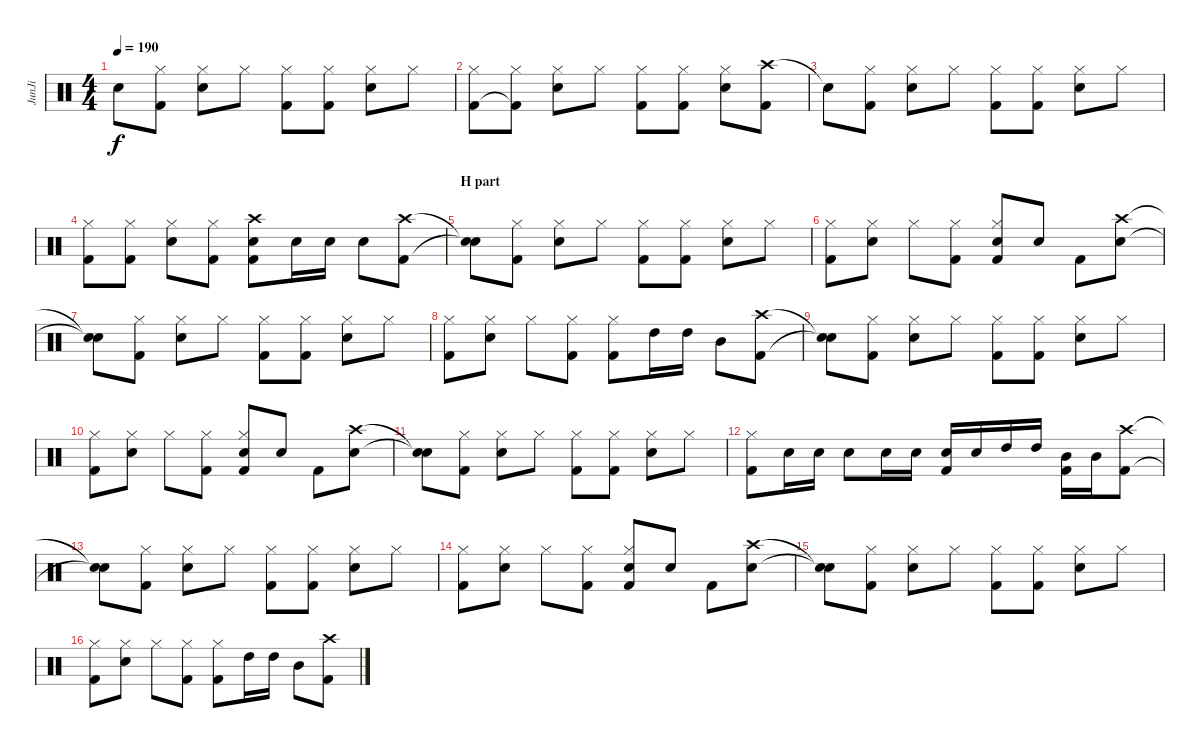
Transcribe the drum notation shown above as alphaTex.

\track ("JunJi" "JunJi") {instrument percussion}
\staff {score}
\articulation defaults
\ts (4 4)
\tempo 190
\clef neutral
\ks c "Snare (hit)"{t}.8{dy f}
("Hi-Hat (closed)" "Kick (hit) 2").8 ("Hi-Hat (closed)" "Snare (hit) 2").8 "Hi-Hat (closed)".8 ("Hi-Hat (closed)" "Kick (hit) 2").8 ("Hi-Hat (closed)" "Kick (hit) 2").8 ("Hi-Hat (closed)" "Snare (hit) 2").8 "Hi-Hat (closed)".8 |
("Hi-Hat (closed)" "Kick (hit) 2").8 ("Hi-Hat (closed)" "Kick (hit) 2"{t}).8 ("Hi-Hat (closed)" "Snare (hit) 2").8 "Hi-Hat (closed)".8 ("Hi-Hat (closed)" "Kick (hit) 2").8 ("Hi-Hat (closed)" "Kick (hit) 2").8 ("Hi-Hat (closed)" "Snare (hit) 2").8 ("Crash high (hit)" "Kick (hit) 2").8 |
"Snare (hit)"{t}.8 ("Hi-Hat (closed)" "Kick (hit) 2").8 ("Hi-Hat (closed)" "Snare (hit) 2").8 "Hi-Hat (closed)".8 ("Hi-Hat (closed)" "Kick (hit) 2").8 ("Hi-Hat (closed)" "Kick (hit) 2").8 ("Hi-Hat (closed)" "Snare (hit) 2").8 "Hi-Hat (closed)".8 |
("Hi-Hat (closed)" "Kick (hit) 2").8 ("Hi-Hat (closed)" "Kick (hit) 2").8 ("Hi-Hat (closed)" "Snare (hit) 2").8 ("Hi-Hat (closed)" "Kick (hit) 2").8 ("Crash high (hit)" "Snare (hit) 2" "Kick (hit) 2").8 "Snare (hit) 2".16 "Snare (hit) 2".16 "Snare (hit) 2".8 ("Crash high (hit)" "Kick (hit) 2").8 |
\section ("" "H part")
("Snare (hit)"{t} "Snare (hit)"{t}).8 ("Hi-Hat (closed)" "Kick (hit) 2").8 ("Hi-Hat (closed)" "Snare (hit) 2").8 "Hi-Hat (closed)".8 ("Hi-Hat (closed)" "Kick (hit) 2").8 ("Hi-Hat (closed)" "Kick (hit) 2").8 ("Hi-Hat (closed)" "Snare (hit) 2").8 "Hi-Hat (closed)".8 |
("Hi-Hat (closed)" "Kick (hit) 2").8 ("Hi-Hat (closed)" "Snare (hit) 2").8 "Hi-Hat (closed)".8 ("Hi-Hat (closed)" "Kick (hit) 2").8 ("Hi-Hat (closed)" "Snare (hit) 2" "Kick (hit) 2").8 "Snare (hit) 2".8 "Kick (hit) 2".8 ("Crash high (hit)" "Snare (hit) 2").8 |
("Snare (hit)"{t} "Snare (hit)"{t}).8 ("Hi-Hat (closed)" "Kick (hit) 2").8 ("Hi-Hat (closed)" "Snare (hit) 2").8 "Hi-Hat (closed)".8 ("Hi-Hat (closed)" "Kick (hit) 2").8 ("Hi-Hat (closed)" "Kick (hit) 2").8 ("Hi-Hat (closed)" "Snare (hit) 2").8 "Hi-Hat (closed)".8 |
("Hi-Hat (closed)" "Kick (hit) 2").8 ("Hi-Hat (closed)" "Snare (hit) 2").8 "Hi-Hat (closed)".8 ("Hi-Hat (closed)" "Kick (hit) 2").8 ("Hi-Hat (closed)" "Kick (hit) 2").8 "High Tom (hit)".16 "High Tom (hit)".16 "Mid Tom (hit)".8 ("Crash high (hit)" "Kick (hit) 2").8 |
("Snare (hit)"{t} "Snare (hit)"{t}).8 ("Hi-Hat (closed)" "Kick (hit) 2").8 ("Hi-Hat (closed)" "Snare (hit) 2").8 "Hi-Hat (closed)".8 ("Hi-Hat (closed)" "Kick (hit) 2").8 ("Hi-Hat (closed)" "Kick (hit) 2").8 ("Hi-Hat (closed)" "Snare (hit) 2").8 "Hi-Hat (closed)".8 |
("Hi-Hat (closed)" "Kick (hit) 2").8 ("Hi-Hat (closed)" "Snare (hit) 2").8 "Hi-Hat (closed)".8 ("Hi-Hat (closed)" "Kick (hit) 2").8 ("Hi-Hat (closed)" "Snare (hit) 2" "Kick (hit) 2").8 "Snare (hit) 2".8 "Kick (hit) 2".8 ("Crash high (hit)" "Snare (hit) 2").8 |
("Snare (hit)"{t} "Snare (hit)"{t}).8 ("Hi-Hat (closed)" "Kick (hit) 2").8 ("Hi-Hat (closed)" "Snare (hit) 2").8 "Hi-Hat (closed)".8 ("Hi-Hat (closed)" "Kick (hit) 2").8 ("Hi-Hat (closed)" "Kick (hit) 2").8 ("Hi-Hat (closed)" "Snare (hit) 2").8 "Hi-Hat (closed)".8 |
("Hi-Hat (closed)" "Kick (hit) 2").8 "Snare (hit) 2".16 "Snare (hit) 2".16 "Snare (hit) 2".8 "Snare (hit) 2".16 "Snare (hit) 2".16 ("Snare (hit) 2" "Kick (hit) 2").16 "Snare (hit) 2".16 "High Tom (hit)".16 "High Tom (hit)".16 ("Mid Tom (hit)" "Kick (hit) 2").16 "Mid Tom (hit)".16 ("Crash high (hit)" "Kick (hit) 2").8 |
("Snare (hit)"{t} "Snare (hit)"{t}).8{volume 15} ("Hi-Hat (closed)" "Kick (hit) 2").8 ("Hi-Hat (closed)" "Snare (hit) 2").8{volume 13} "Hi-Hat (closed)".8 ("Hi-Hat (closed)" "Kick (hit) 2").8 ("Hi-Hat (closed)" "Kick (hit) 2").8 ("Hi-Hat (closed)" "Snare (hit) 2").8 "Hi-Hat (closed)".8 |
("Hi-Hat (closed)" "Kick (hit) 2").8{volume 11} ("Hi-Hat (closed)" "Snare (hit) 2").8 "Hi-Hat (closed)".8 ("Hi-Hat (closed)" "Kick (hit) 2").8 ("Hi-Hat (closed)" "Snare (hit) 2" "Kick (hit) 2").8 "Snare (hit) 2".8 "Kick (hit) 2".8 ("Crash high (hit)" "Snare (hit) 2").8 |
("Snare (hit)"{t} "Snare (hit)"{t}).8{volume 8} ("Hi-Hat (closed)" "Kick (hit) 2").8 ("Hi-Hat (closed)" "Snare (hit) 2").8 "Hi-Hat (closed)".8 ("Hi-Hat (closed)" "Kick (hit) 2").8 ("Hi-Hat (closed)" "Kick (hit) 2").8 ("Hi-Hat (closed)" "Snare (hit) 2").8 "Hi-Hat (closed)".8 |
("Hi-Hat (closed)" "Kick (hit) 2").8 ("Hi-Hat (closed)" "Snare (hit) 2").8 "Hi-Hat (closed)".8 ("Hi-Hat (closed)" "Kick (hit) 2").8 ("Hi-Hat (closed)" "Kick (hit) 2").8 "High Tom (hit)".16 "High Tom (hit)".16 "Mid Tom (hit)".8 ("Crash high (hit)" "Kick (hit) 2").8
